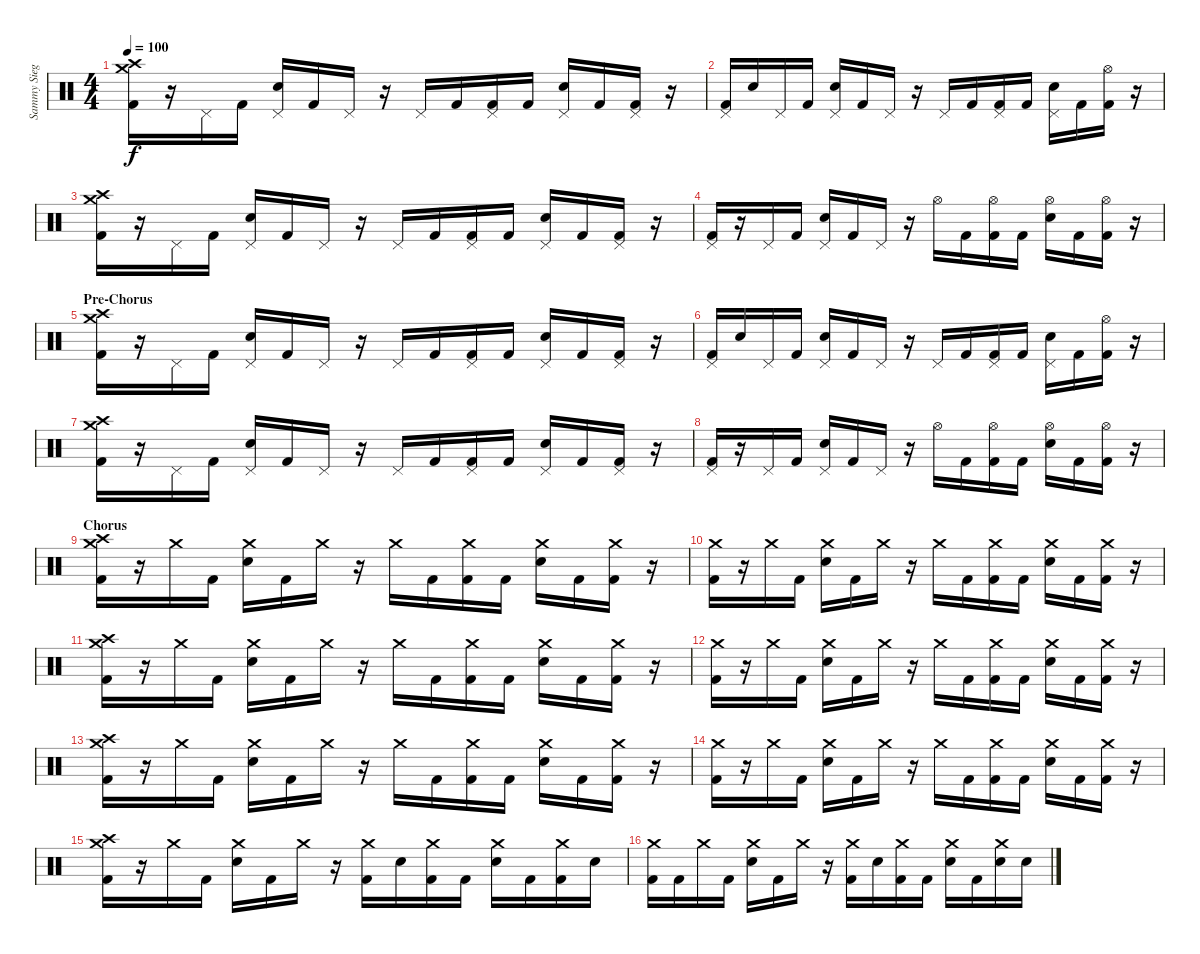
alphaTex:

\track ("Sammy Siegler" "Sammy Sieg") {instrument percussion}
\staff {score}
\articulation defaults
\ts (4 4)
\tempo 100
\clef neutral
\ks c
("Crash medium (hit)" "Crash high (hit)" "Kick (hit) 2").16{dy f} r.16 "Pedal Hi-Hat (hit)".16 "Kick (hit) 2".16 ("Pedal Hi-Hat (hit)" "Electric Snare (hit)").16 "Kick (hit) 2".16 "Pedal Hi-Hat (hit)".16 r.16 "Pedal Hi-Hat (hit)".16 "Kick (hit) 2".16 ("Pedal Hi-Hat (hit)" "Kick (hit) 2").16 "Kick (hit) 2".16 ("Pedal Hi-Hat (hit)" "Electric Snare (hit)").16 "Kick (hit) 2".16 ("Pedal Hi-Hat (hit)" "Kick (hit) 2").16 r.16 |
("Pedal Hi-Hat (hit)" "Kick (hit) 2").16 "Snare (hit)".16 "Pedal Hi-Hat (hit)".16 "Kick (hit) 2".16 ("Pedal Hi-Hat (hit)" "Electric Snare (hit)").16 "Kick (hit) 2".16 "Pedal Hi-Hat (hit)".16 r.16 "Pedal Hi-Hat (hit)".16 "Kick (hit) 2".16 ("Pedal Hi-Hat (hit)" "Kick (hit) 2").16 "Kick (hit) 2".16 ("Pedal Hi-Hat (hit)" "Electric Snare (hit)").16 "Kick (hit) 2".16 ("Hi-Hat (open)" "Kick (hit) 2").16 r.16 |
("Crash medium (hit)" "Crash high (hit)" "Kick (hit) 2").16 r.16 "Pedal Hi-Hat (hit)".16 "Kick (hit) 2".16 ("Pedal Hi-Hat (hit)" "Electric Snare (hit)").16 "Kick (hit) 2".16 "Pedal Hi-Hat (hit)".16 r.16 "Pedal Hi-Hat (hit)".16 "Kick (hit) 2".16 ("Pedal Hi-Hat (hit)" "Kick (hit) 2").16 "Kick (hit) 2".16 ("Pedal Hi-Hat (hit)" "Electric Snare (hit)").16 "Kick (hit) 2".16 ("Pedal Hi-Hat (hit)" "Kick (hit) 2").16 r.16 |
("Pedal Hi-Hat (hit)" "Kick (hit) 2").16 r.16 "Pedal Hi-Hat (hit)".16 "Kick (hit) 2".16 ("Pedal Hi-Hat (hit)" "Electric Snare (hit)").16 "Kick (hit) 2".16 "Pedal Hi-Hat (hit)".16 r.16 "Hi-Hat (open)".16 "Kick (hit) 2".16 ("Hi-Hat (open)" "Kick (hit) 2").16 "Kick (hit) 2".16 ("Hi-Hat (open)" "Electric Snare (hit)").16 "Kick (hit) 2".16 ("Hi-Hat (open)" "Kick (hit) 2").16 r.16 |
\section ("" "Pre-Chorus")
("Crash medium (hit)" "Crash high (hit)" "Kick (hit) 2").16 r.16 "Pedal Hi-Hat (hit)".16 "Kick (hit) 2".16 ("Pedal Hi-Hat (hit)" "Electric Snare (hit)").16 "Kick (hit) 2".16 "Pedal Hi-Hat (hit)".16 r.16 "Pedal Hi-Hat (hit)".16 "Kick (hit) 2".16 ("Pedal Hi-Hat (hit)" "Kick (hit) 2").16 "Kick (hit) 2".16 ("Pedal Hi-Hat (hit)" "Electric Snare (hit)").16 "Kick (hit) 2".16 ("Pedal Hi-Hat (hit)" "Kick (hit) 2").16 r.16 |
("Pedal Hi-Hat (hit)" "Kick (hit) 2").16 "Snare (hit)".16 "Pedal Hi-Hat (hit)".16 "Kick (hit) 2".16 ("Pedal Hi-Hat (hit)" "Electric Snare (hit)").16 "Kick (hit) 2".16 "Pedal Hi-Hat (hit)".16 r.16 "Pedal Hi-Hat (hit)".16 "Kick (hit) 2".16 ("Pedal Hi-Hat (hit)" "Kick (hit) 2").16 "Kick (hit) 2".16 ("Pedal Hi-Hat (hit)" "Electric Snare (hit)").16 "Kick (hit) 2".16 ("Hi-Hat (open)" "Kick (hit) 2").16 r.16 |
("Crash medium (hit)" "Crash high (hit)" "Kick (hit) 2").16 r.16 "Pedal Hi-Hat (hit)".16 "Kick (hit) 2".16 ("Pedal Hi-Hat (hit)" "Electric Snare (hit)").16 "Kick (hit) 2".16 "Pedal Hi-Hat (hit)".16 r.16 "Pedal Hi-Hat (hit)".16 "Kick (hit) 2".16 ("Pedal Hi-Hat (hit)" "Kick (hit) 2").16 "Kick (hit) 2".16 ("Pedal Hi-Hat (hit)" "Electric Snare (hit)").16 "Kick (hit) 2".16 ("Pedal Hi-Hat (hit)" "Kick (hit) 2").16 r.16 |
("Pedal Hi-Hat (hit)" "Kick (hit) 2").16 r.16 "Pedal Hi-Hat (hit)".16 "Kick (hit) 2".16 ("Pedal Hi-Hat (hit)" "Electric Snare (hit)").16 "Kick (hit) 2".16 "Pedal Hi-Hat (hit)".16 r.16 "Hi-Hat (open)".16 "Kick (hit) 2".16 ("Hi-Hat (open)" "Kick (hit) 2").16 "Kick (hit) 2".16 ("Hi-Hat (open)" "Electric Snare (hit)").16 "Kick (hit) 2".16 ("Hi-Hat (open)" "Kick (hit) 2").16 r.16 |
\section ("" "Chorus")
("Crash medium (hit)" "Crash high (hit)" "Kick (hit) 2").16 r.16 "Crash medium (hit)".16 "Kick (hit) 2".16 ("Crash medium (hit)" "Electric Snare (hit)").16 "Kick (hit) 2".16 "Crash medium (hit)".16 r.16 "Crash medium (hit)".16 "Kick (hit) 2".16 ("Crash medium (hit)" "Kick (hit) 2").16 "Kick (hit) 2".16 ("Crash medium (hit)" "Electric Snare (hit)").16 "Kick (hit) 2".16 ("Crash medium (hit)" "Kick (hit) 2").16 r.16 |
("Crash medium (hit)" "Kick (hit) 2").16 r.16 "Crash medium (hit)".16 "Kick (hit) 2".16 ("Crash medium (hit)" "Electric Snare (hit)").16 "Kick (hit) 2".16 "Crash medium (hit)".16 r.16 "Crash medium (hit)".16 "Kick (hit) 2".16 ("Crash medium (hit)" "Kick (hit) 2").16 "Kick (hit) 2".16 ("Crash medium (hit)" "Electric Snare (hit)").16 "Kick (hit) 2".16 ("Crash medium (hit)" "Kick (hit) 2").16 r.16 |
("Crash medium (hit)" "Crash high (hit)" "Kick (hit) 2").16 r.16 "Crash medium (hit)".16 "Kick (hit) 2".16 ("Crash medium (hit)" "Electric Snare (hit)").16 "Kick (hit) 2".16 "Crash medium (hit)".16 r.16 "Crash medium (hit)".16 "Kick (hit) 2".16 ("Crash medium (hit)" "Kick (hit) 2").16 "Kick (hit) 2".16 ("Crash medium (hit)" "Electric Snare (hit)").16 "Kick (hit) 2".16 ("Crash medium (hit)" "Kick (hit) 2").16 r.16 |
("Crash medium (hit)" "Kick (hit) 2").16 r.16 "Crash medium (hit)".16 "Kick (hit) 2".16 ("Crash medium (hit)" "Electric Snare (hit)").16 "Kick (hit) 2".16 "Crash medium (hit)".16 r.16 "Crash medium (hit)".16 "Kick (hit) 2".16 ("Crash medium (hit)" "Kick (hit) 2").16 "Kick (hit) 2".16 ("Crash medium (hit)" "Electric Snare (hit)").16 "Kick (hit) 2".16 ("Crash medium (hit)" "Kick (hit) 2").16 r.16 |
("Crash medium (hit)" "Crash high (hit)" "Kick (hit) 2").16 r.16 "Crash medium (hit)".16 "Kick (hit) 2".16 ("Crash medium (hit)" "Electric Snare (hit)").16 "Kick (hit) 2".16 "Crash medium (hit)".16 r.16 "Crash medium (hit)".16 "Kick (hit) 2".16 ("Crash medium (hit)" "Kick (hit) 2").16 "Kick (hit) 2".16 ("Crash medium (hit)" "Electric Snare (hit)").16 "Kick (hit) 2".16 ("Crash medium (hit)" "Kick (hit) 2").16 r.16 |
("Crash medium (hit)" "Kick (hit) 2").16 r.16 "Crash medium (hit)".16 "Kick (hit) 2".16 ("Crash medium (hit)" "Electric Snare (hit)").16 "Kick (hit) 2".16 "Crash medium (hit)".16 r.16 "Crash medium (hit)".16 "Kick (hit) 2".16 ("Crash medium (hit)" "Kick (hit) 2").16 "Kick (hit) 2".16 ("Crash medium (hit)" "Electric Snare (hit)").16 "Kick (hit) 2".16 ("Crash medium (hit)" "Kick (hit) 2").16 r.16 |
("Crash medium (hit)" "Crash high (hit)" "Kick (hit) 2").16 r.16 "Crash medium (hit)".16 "Kick (hit) 2".16 ("Crash medium (hit)" "Electric Snare (hit)").16 "Kick (hit) 2".16 "Crash medium (hit)".16 r.16 ("Crash medium (hit)" "Kick (hit) 2").16 "Electric Snare (hit)".16 ("Crash medium (hit)" "Kick (hit) 2").16 "Kick (hit) 2".16 ("Crash medium (hit)" "Electric Snare (hit)").16 "Kick (hit) 2".16 ("Crash medium (hit)" "Kick (hit) 2").16 "Electric Snare (hit)".16 |
("Crash medium (hit)" "Kick (hit) 2").16 "Kick (hit) 2".16 "Crash medium (hit)".16 "Kick (hit) 2".16 ("Crash medium (hit)" "Electric Snare (hit)").16 "Kick (hit) 2".16 "Crash medium (hit)".16 r.16 ("Crash medium (hit)" "Kick (hit) 2").16 "Electric Snare (hit)".16 ("Crash medium (hit)" "Kick (hit) 2").16 "Kick (hit) 2".16 ("Crash medium (hit)" "Electric Snare (hit)").16 "Kick (hit) 2".16 ("Crash medium (hit)" "Electric Snare (hit)").16 "Electric Snare (hit)".16
